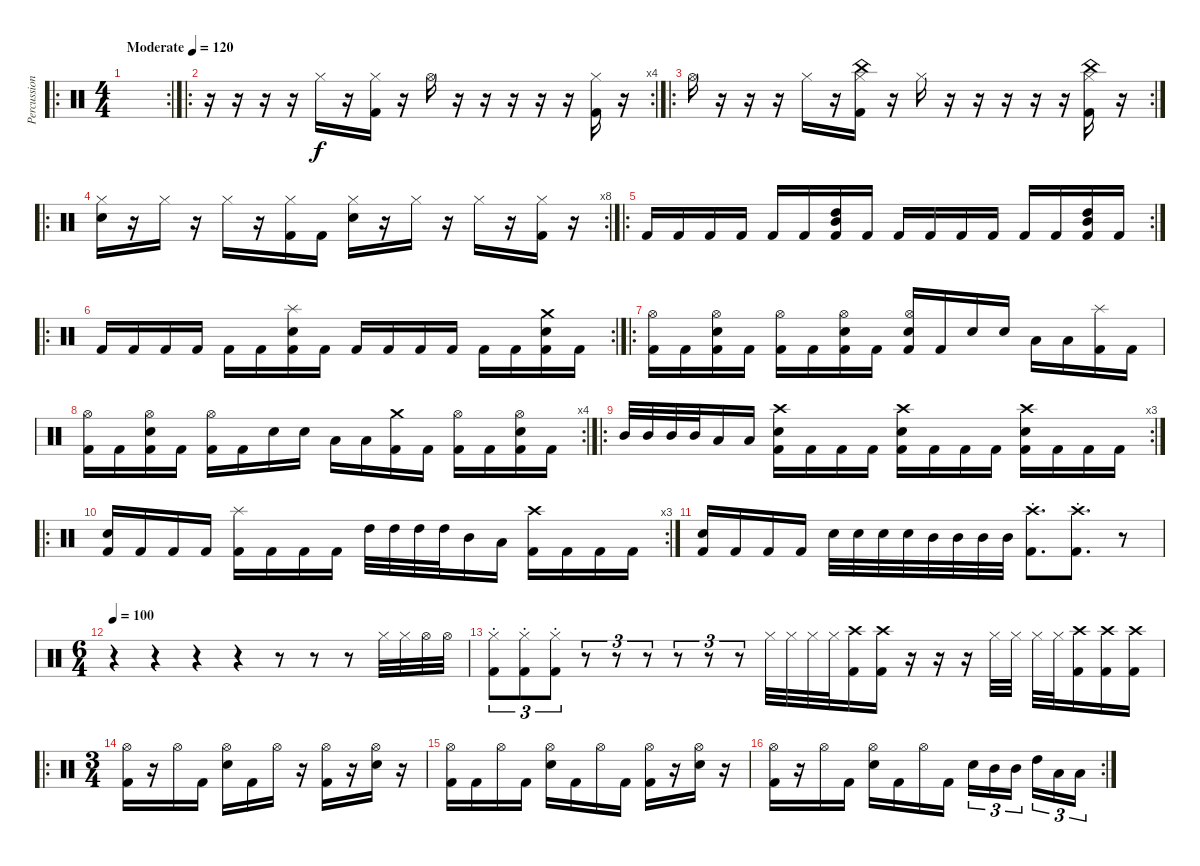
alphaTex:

\track ("Percussion" "Percussion") {instrument percussion}
\staff {score}
\articulation defaults
\ro
\rc 2
\ts (4 4)
\tempo (120 "Moderate")
\clef neutral
\ks c
|
\ro
\rc 4
r.16 r.16 r.16 r.16 "Hi-Hat (closed)".16 r.16 ("Kick (hit) 2" "Hi-Hat (closed)").16 r.16 "Hi-Hat (open)".16 r.16 r.16 r.16 r.16 r.16 ("Kick (hit) 2" "Hi-Hat (closed)").16 r.16 |
\ro
\rc 2 "Hi-Hat (open)".16
r.16 r.16 r.16 "Hi-Hat (closed)".16 r.16 ("China (hit)" "Kick (hit) 2" "Hi-Hat (closed)").16 r.16 "Hi-Hat (closed)".16 r.16 r.16 r.16 r.16 r.16 ("China (hit)" "Kick (hit) 2" "Hi-Hat (closed)").16 r.16 |
\ro
\rc 8
("Snare (hit) 2" "Hi-Hat (closed)").16 r.16 "Hi-Hat (closed)".16 r.16 "Hi-Hat (closed)".16 r.16 ("Kick (hit) 2" "Hi-Hat (closed)").16 "Kick (hit) 2".16 ("Snare (hit) 2" "Hi-Hat (closed)").16 r.16 "Hi-Hat (closed)".16 r.16 "Hi-Hat (closed)".16 r.16 ("Kick (hit) 2" "Hi-Hat (closed)").16 r.16 |
\ro
\rc 2 "Kick (hit) 2".16 "Kick (hit) 2".16 "Kick (hit) 2".16 "Kick (hit) 2".16 "Kick (hit) 2".16 "Kick (hit) 2".16
("High Tom (hit)" "Mid Tom (hit)" "Kick (hit) 2").16 "Kick (hit) 2".16 "Kick (hit) 2".16 "Kick (hit) 2".16 "Kick (hit) 2".16 "Kick (hit) 2".16 "Kick (hit) 2".16 "Kick (hit) 2".16 ("High Tom (hit)" "Mid Tom (hit)" "Kick (hit) 2").16 "Kick (hit) 2".16 |
\ro
\rc 2 "Kick (hit) 2".16 "Kick (hit) 2".16 "Kick (hit) 2".16 "Kick (hit) 2".16 "Kick (hit) 2".16 "Kick (hit) 2".16
("Splash (hit)" "Snare (hit) 2" "Kick (hit) 2").16 "Kick (hit) 2".16 "Kick (hit) 2".16 "Kick (hit) 2".16 "Kick (hit) 2".16 "Kick (hit) 2".16 "Kick (hit) 2".16 "Kick (hit) 2".16 ("Crash medium (hit)" "Snare (hit) 2" "Kick (hit) 2").16 "Kick (hit) 2".16 |
\ro
("Hi-Hat (open)" "Kick (hit) 2").16 "Kick (hit) 2".16 ("Hi-Hat (open)" "Snare (hit) 2" "Kick (hit) 2").16 "Kick (hit) 2".16 ("Hi-Hat (open)" "Kick (hit) 2").16 "Kick (hit) 2".16 ("Hi-Hat (open)" "Snare (hit) 2" "Kick (hit) 2").16 "Kick (hit) 2".16 ("Hi-Hat (open)" "Snare (hit) 2" "Kick (hit) 2").16 "Kick (hit) 2".16 "Snare (hit) 2".16 "Snare (hit) 2".16 "Low Tom (hit)".16 "Low Tom (hit)".16 ("Splash (hit)" "Kick (hit) 2").16 "Kick (hit) 2".16 |
\rc 4
("Hi-Hat (open)" "Kick (hit) 2").16 "Kick (hit) 2".16 ("Hi-Hat (open)" "Snare (hit) 2" "Kick (hit) 2").16 "Kick (hit) 2".16 ("Hi-Hat (open)" "Kick (hit) 2").16 "Kick (hit) 2".16 "Snare (hit) 2".16 "Snare (hit) 2".16 "Low Tom (hit)".16 "Low Tom (hit)".16 ("Crash medium (hit)" "Kick (hit) 2").16 "Kick (hit) 2".16 ("Hi-Hat (open)" "Kick (hit) 2").16 "Kick (hit) 2".16 ("Hi-Hat (open)" "Snare (hit) 2" "Kick (hit) 2").16 "Kick (hit) 2".16 |
\ro
\rc 3 "Mid Tom (hit)".32 "Mid Tom (hit)".32 "Mid Tom (hit)".32 "Mid Tom (hit)".32 "Low Tom (hit)".16 "Low Tom (hit)".16
("Crash high (hit)" "Snare (hit) 2" "Kick (hit) 2").16 "Kick (hit) 2".16 "Kick (hit) 2".16 "Kick (hit) 2".16 ("Crash high (hit)" "Snare (hit) 2" "Kick (hit) 2").16 "Kick (hit) 2".16 "Kick (hit) 2".16 "Kick (hit) 2".16 ("Crash high (hit)" "Snare (hit) 2" "Kick (hit) 2").16 "Kick (hit) 2".16 "Kick (hit) 2".16 "Kick (hit) 2".16 |
\ro
\rc 3
("Kick (hit) 2" "Snare (hit) 2").16 "Kick (hit) 2".16 "Kick (hit) 2".16 "Kick (hit) 2".16 ("Kick (hit) 2" "Splash (hit)").16 "Kick (hit) 2".16 "Kick (hit) 2".16 "Kick (hit) 2".16 "High Tom (hit)".32 "High Tom (hit)".32 "High Tom (hit)".32 "High Tom (hit)".32 "Mid Tom (hit)".16 "Low Tom (hit)".16 ("Kick (hit) 2" "Crash high (hit)").16 "Kick (hit) 2".16 "Kick (hit) 2".16 "Kick (hit) 2".16 |
("Kick (hit) 2" "Snare (hit) 2").16 "Kick (hit) 2".16 "Kick (hit) 2".16 "Kick (hit) 2".16 "Snare (hit) 2".32 "Snare (hit) 2".32 "Snare (hit) 2".32 "Snare (hit) 2".32 "Mid Tom (hit)".32 "Mid Tom (hit)".32 "Mid Tom (hit)".32 "Mid Tom (hit)".32 ("Kick (hit) 2" "Crash high (hit)"{st}).8{d} ("Kick (hit) 2" "Crash high (hit)"{st}).8{d} r.8 |
\ts (6 4)
\tempo 100
r.4 r.4 r.4 r.4 r.8 r.8 r.8 "Hi-Hat (closed)".32 "Hi-Hat (closed)".32 "Hi-Hat (open)".32 "Hi-Hat (open)".32 |
("Hi-Hat (closed)"{st} "Kick (hit) 2"{st}).8{tu (3 2)} ("Hi-Hat (closed)"{st} "Kick (hit) 2"{st}).8{tu (3 2)} ("Hi-Hat (closed)"{st} "Kick (hit) 2"{st}).8{tu (3 2)} r.8{tu (3 2)} r.8{tu (3 2)} r.8{tu (3 2)} r.8{tu (3 2)} r.8{tu (3 2)} r.8{tu (3 2)} "Hi-Hat (closed)".32 "Hi-Hat (closed)".32 "Hi-Hat (closed)".32 "Hi-Hat (closed)".32 ("Crash high (hit)" "Kick (hit) 2").16 ("Crash high (hit)" "Kick (hit) 2").16 r.16 r.16 r.16 "Hi-Hat (closed)".32 "Hi-Hat (closed)".32 "Hi-Hat (closed)".32 "Hi-Hat (closed)".32 ("Crash high (hit)" "Kick (hit) 2").16 ("Crash high (hit)" "Kick (hit) 2").16 ("Crash high (hit)" "Kick (hit) 2").16 |
\ro
\ts (3 4)
("Hi-Hat (open)" "Kick (hit) 2").16 r.16 "Hi-Hat (open)".16 "Kick (hit) 2".16 ("Hi-Hat (open)" "Snare (hit) 2").16 "Kick (hit) 2".16 "Hi-Hat (open)".16 r.16 ("Hi-Hat (open)" "Kick (hit) 2").16 r.16 ("Hi-Hat (open)" "Snare (hit) 2").16 r.16 |
("Hi-Hat (open)" "Kick (hit) 2").16 "Kick (hit) 2".16 "Hi-Hat (open)".16 "Kick (hit) 2".16 ("Hi-Hat (open)" "Snare (hit) 2").16 "Kick (hit) 2".16 "Hi-Hat (open)".16 "Kick (hit) 2".16 ("Hi-Hat (open)" "Kick (hit) 2").16 r.16 ("Hi-Hat (open)" "Snare (hit) 2").16 r.16 |
\rc 2
("Hi-Hat (open)" "Kick (hit) 2").16 r.16 "Hi-Hat (open)".16 "Kick (hit) 2".16 ("Hi-Hat (open)" "Snare (hit) 2").16 "Kick (hit) 2".16 "Hi-Hat (open)".16 "Kick (hit) 2".16 "Snare (hit) 2".16{tu (3 2)} "Mid Tom (hit)".16{tu (3 2)} "Mid Tom (hit)".16{tu (3 2) beam splitsecondary} "High Tom (hit)".16{tu (3 2)} "Low Tom (hit)".16{tu (3 2)} "Low Tom (hit)".16{tu (3 2)}
